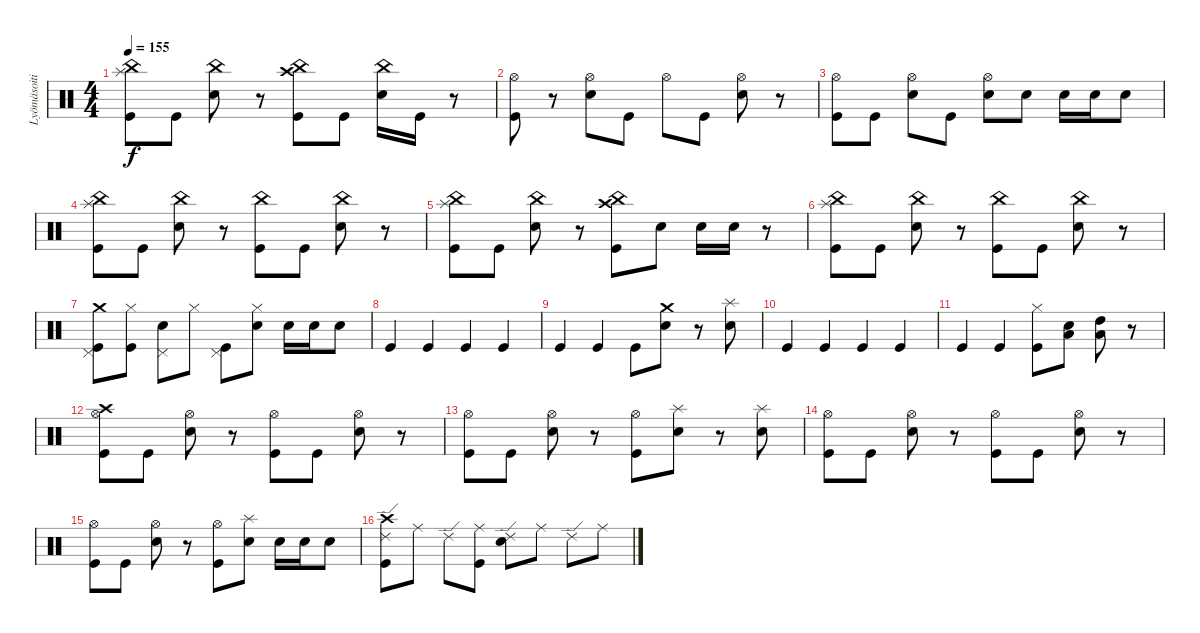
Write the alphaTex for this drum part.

\track ("Lyömäsoitin" "Lyömäsoiti") {instrument percussion}
\staff {score}
\articulation defaults
\ts (4 4)
\tempo 155
\clef neutral
\ks c
("Splash (hit)" "China (hit)" "Kick (hit)").8{dy f} "Kick (hit)".8 ("China (hit)" "Snare (hit) 2").8 r.8 ("Crash high (hit)" "China (hit)" "Kick (hit)").8 "Kick (hit)".8 ("China (hit)" "Snare (hit) 2").16 "Kick (hit)".16 r.8 |
("Hi-Hat (open)" "Kick (hit)").8 r.8 ("Hi-Hat (open)" "Snare (hit) 2").8 "Kick (hit)".8 "Hi-Hat (open)".8 "Kick (hit)".8 ("Hi-Hat (open)" "Snare (hit) 2").8 r.8 |
("Hi-Hat (open)" "Kick (hit)").8 "Kick (hit)".8 ("Hi-Hat (open)" "Snare (hit) 2").8 "Kick (hit)".8 ("Hi-Hat (open)" "Snare (hit) 2").8 "Snare (hit) 2".8 "Snare (hit) 2".16 "Snare (hit) 2".16 "Snare (hit) 2".8 |
("Splash (hit)" "China (hit)" "Kick (hit)").8 "Kick (hit)".8 ("China (hit)" "Snare (hit) 2").8 r.8 ("China (hit)" "Kick (hit)").8 "Kick (hit)".8 ("China (hit)" "Snare (hit) 2").8 r.8 |
("Splash (hit)" "China (hit)" "Kick (hit)").8 "Kick (hit)".8 ("China (hit)" "Snare (hit) 2").8 r.8 ("Crash high (hit)" "China (hit)" "Kick (hit)").8 "Snare (hit) 2".8 "Snare (hit) 2".16 "Snare (hit) 2".16 r.8 |
("Splash (hit)" "China (hit)" "Kick (hit)").8 "Kick (hit)".8 ("China (hit)" "Snare (hit) 2").8 r.8 ("China (hit)" "Kick (hit)").8 "Kick (hit)".8 ("China (hit)" "Snare (hit) 2").8 r.8 |
("Crash medium (hit)" "Pedal Hi-Hat (hit)" "Kick (hit)").8 ("Hi-Hat (closed)" "Kick (hit)").8 ("Pedal Hi-Hat (hit)" "Snare (hit) 2").8 "Hi-Hat (closed)".8 ("Pedal Hi-Hat (hit)" "Kick (hit)").8 ("Hi-Hat (closed)" "Snare (hit) 2").8 "Snare (hit) 2".16 "Snare (hit) 2".16 "Snare (hit) 2".8 |
"Kick (hit)".4 "Kick (hit)".4 "Kick (hit)".4 "Kick (hit)".4 |
"Kick (hit)".4 "Kick (hit)".4 "Kick (hit)".8 ("Crash medium (hit)" "Snare (hit) 2").8 r.8 ("Splash (hit)" "Snare (hit) 2").8 |
"Kick (hit)".4 "Kick (hit)".4 "Kick (hit)".4 "Kick (hit)".4 |
"Kick (hit)".4 "Kick (hit)".4 ("Hi-Hat (closed)" "Kick (hit)").8 ("Low Tom (hit)" "Snare (hit) 2").8 ("Low Tom (hit)" "High Tom (hit)").8 r.8 |
("Crash high (hit)" "Hi-Hat (open)" "Kick (hit)").8 "Kick (hit)".8 ("Hi-Hat (open)" "Snare (hit) 2").8 r.8 ("Hi-Hat (open)" "Kick (hit)").8 "Kick (hit)".8 ("Hi-Hat (open)" "Snare (hit) 2").8 r.8 |
("Hi-Hat (open)" "Kick (hit)").8 "Kick (hit)".8 ("Hi-Hat (open)" "Snare (hit) 2").8 r.8 ("Hi-Hat (open)" "Kick (hit)").8 ("Splash (hit)" "Snare (hit) 2").8 r.8 ("Splash (hit)" "Snare (hit) 2").8 |
("Hi-Hat (open)" "Kick (hit)").8 "Kick (hit)".8 ("Hi-Hat (open)" "Snare (hit) 2").8 r.8 ("Hi-Hat (open)" "Kick (hit)").8 "Kick (hit)".8 ("Hi-Hat (open)" "Snare (hit) 2").8 r.8 |
("Hi-Hat (open)" "Kick (hit)").8 "Kick (hit)".8 ("Hi-Hat (open)" "Snare (hit) 2").8 r.8 ("Hi-Hat (open)" "Kick (hit)").8 ("Splash (hit)" "Snare (hit) 2").8 "Snare (hit) 2".16 "Snare (hit) 2".16 "Snare (hit) 2".8 |
("Crash high (hit)" "Ride (edge) 2" "Kick (hit)").8 "Ride (middle)".8 "Ride (edge) 2".8 ("Ride (middle)" "Kick (hit)").8 ("Ride (edge) 2" "Snare (hit) 2").8 "Ride (middle)".8 "Ride (edge) 2".8 "Ride (middle)".8
